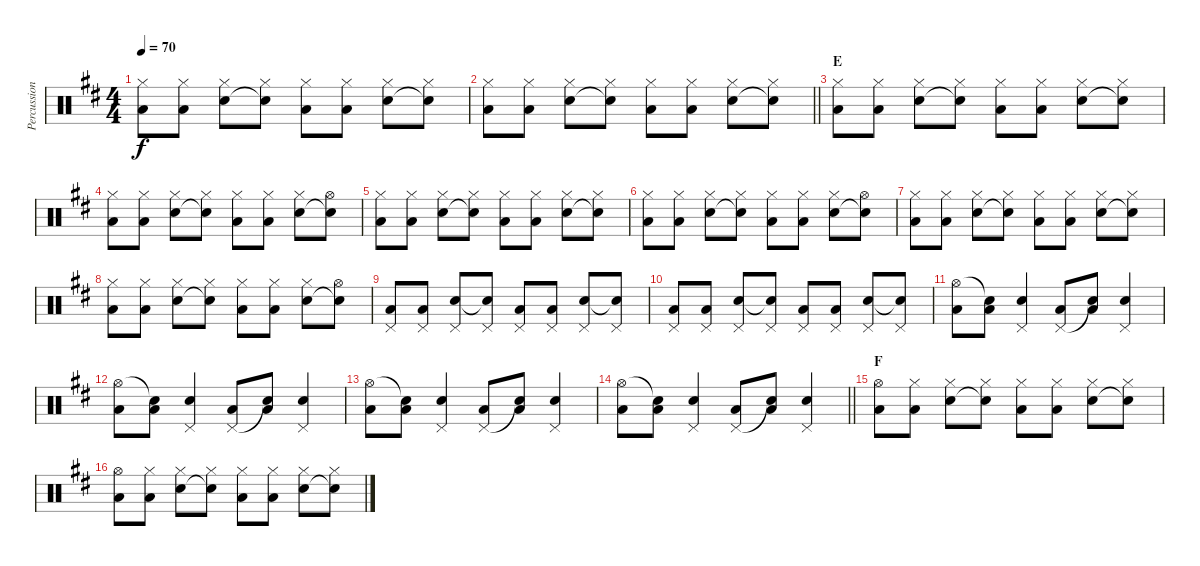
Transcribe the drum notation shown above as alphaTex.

\track ("Percussions" "Percussion") {instrument percussion}
\staff {score}
\articulation defaults
\ts (4 4)
\tempo 70
\clef neutral
\ks d
("Hi-Hat (closed)" "Low Floor Tom (hit)").8{dy f} ("Hi-Hat (closed)" "Low Floor Tom (hit)").8 ("Hi-Hat (closed)" "Electric Snare (hit)").8 ("Hi-Hat (closed)" "Snare (hit)"{t}).8 ("Hi-Hat (closed)" "Low Floor Tom (hit)").8 ("Hi-Hat (closed)" "Low Floor Tom (hit)").8 ("Hi-Hat (closed)" "Electric Snare (hit)").8 ("Hi-Hat (closed)" "Snare (hit)"{t}).8 |
\barLineRight lightlight
("Hi-Hat (closed)" "Low Floor Tom (hit)").8 ("Hi-Hat (closed)" "Low Floor Tom (hit)").8 ("Hi-Hat (closed)" "Electric Snare (hit)").8 ("Hi-Hat (closed)" "Snare (hit)"{t}).8 ("Hi-Hat (closed)" "Low Floor Tom (hit)").8 ("Hi-Hat (closed)" "Low Floor Tom (hit)").8 ("Hi-Hat (closed)" "Electric Snare (hit)").8 ("Hi-Hat (closed)" "Snare (hit)"{t}).8 |
\section ("" "E")
("Hi-Hat (closed)" "Low Floor Tom (hit)").8 ("Hi-Hat (closed)" "Low Floor Tom (hit)").8 ("Hi-Hat (closed)" "Electric Snare (hit)").8 ("Hi-Hat (closed)" "Snare (hit)"{t}).8 ("Hi-Hat (closed)" "Low Floor Tom (hit)").8 ("Hi-Hat (closed)" "Low Floor Tom (hit)").8 ("Hi-Hat (closed)" "Electric Snare (hit)").8 ("Hi-Hat (closed)" "Snare (hit)"{t}).8 |
("Hi-Hat (closed)" "Low Floor Tom (hit)").8 ("Hi-Hat (closed)" "Low Floor Tom (hit)").8 ("Hi-Hat (closed)" "Electric Snare (hit)").8 ("Hi-Hat (closed)" "Snare (hit)"{t}).8 ("Hi-Hat (closed)" "Low Floor Tom (hit)").8 ("Hi-Hat (closed)" "Low Floor Tom (hit)").8 ("Hi-Hat (closed)" "Electric Snare (hit)").8 ("Hi-Hat (open)" "Snare (hit)"{t}).8 |
("Hi-Hat (closed)" "Low Floor Tom (hit)").8 ("Hi-Hat (closed)" "Low Floor Tom (hit)").8 ("Hi-Hat (closed)" "Electric Snare (hit)").8 ("Hi-Hat (closed)" "Snare (hit)"{t}).8 ("Hi-Hat (closed)" "Low Floor Tom (hit)").8 ("Hi-Hat (closed)" "Low Floor Tom (hit)").8 ("Hi-Hat (closed)" "Electric Snare (hit)").8 ("Hi-Hat (closed)" "Snare (hit)"{t}).8 |
("Hi-Hat (closed)" "Low Floor Tom (hit)").8 ("Hi-Hat (closed)" "Low Floor Tom (hit)").8 ("Hi-Hat (closed)" "Electric Snare (hit)").8 ("Hi-Hat (closed)" "Snare (hit)"{t}).8 ("Hi-Hat (closed)" "Low Floor Tom (hit)").8 ("Hi-Hat (closed)" "Low Floor Tom (hit)").8 ("Hi-Hat (closed)" "Electric Snare (hit)").8 ("Hi-Hat (open)" "Snare (hit)"{t}).8 |
("Hi-Hat (closed)" "Low Floor Tom (hit)").8 ("Hi-Hat (closed)" "Low Floor Tom (hit)").8 ("Hi-Hat (closed)" "Electric Snare (hit)").8 ("Hi-Hat (closed)" "Snare (hit)"{t}).8 ("Hi-Hat (closed)" "Low Floor Tom (hit)").8 ("Hi-Hat (closed)" "Low Floor Tom (hit)").8 ("Hi-Hat (closed)" "Electric Snare (hit)").8 ("Hi-Hat (closed)" "Snare (hit)"{t}).8 |
("Hi-Hat (closed)" "Low Floor Tom (hit)").8 ("Hi-Hat (closed)" "Low Floor Tom (hit)").8 ("Hi-Hat (closed)" "Electric Snare (hit)").8 ("Hi-Hat (closed)" "Snare (hit)"{t}).8 ("Hi-Hat (closed)" "Low Floor Tom (hit)").8 ("Hi-Hat (closed)" "Low Floor Tom (hit)").8 ("Hi-Hat (closed)" "Electric Snare (hit)").8 ("Hi-Hat (open)" "Snare (hit)"{t}).8 |
("Pedal Hi-Hat (hit)" "Low Floor Tom (hit)").8 ("Pedal Hi-Hat (hit)" "Low Floor Tom (hit)").8 ("Pedal Hi-Hat (hit)" "Electric Snare (hit)").8 ("Pedal Hi-Hat (hit)" "Snare (hit)"{t}).8 ("Pedal Hi-Hat (hit)" "Low Floor Tom (hit)").8 ("Pedal Hi-Hat (hit)" "Low Floor Tom (hit)").8 ("Pedal Hi-Hat (hit)" "Electric Snare (hit)").8 ("Pedal Hi-Hat (hit)" "Snare (hit)"{t}).8 |
("Pedal Hi-Hat (hit)" "Low Floor Tom (hit)").8 ("Pedal Hi-Hat (hit)" "Low Floor Tom (hit)").8 ("Pedal Hi-Hat (hit)" "Electric Snare (hit)").8 ("Pedal Hi-Hat (hit)" "Snare (hit)"{t}).8 ("Pedal Hi-Hat (hit)" "Low Floor Tom (hit)").8 ("Pedal Hi-Hat (hit)" "Low Floor Tom (hit)").8 ("Pedal Hi-Hat (hit)" "Electric Snare (hit)").8 ("Pedal Hi-Hat (hit)" "Snare (hit)"{t}).8 |
("Hi-Hat (open)" "Low Floor Tom (hit)").8 ("Snare (hit)"{t} "Low Floor Tom (hit)").8 ("Pedal Hi-Hat (hit)" "Electric Snare (hit)").4 ("Pedal Hi-Hat (hit)" "Low Floor Tom (hit)").8 ("Snare (hit)"{t} "Low Floor Tom (hit)").8 ("Pedal Hi-Hat (hit)" "Electric Snare (hit)").4 |
("Hi-Hat (open)" "Low Floor Tom (hit)").8 ("Snare (hit)"{t} "Low Floor Tom (hit)").8 ("Pedal Hi-Hat (hit)" "Electric Snare (hit)").4 ("Pedal Hi-Hat (hit)" "Low Floor Tom (hit)").8 ("Snare (hit)"{t} "Low Floor Tom (hit)").8 ("Pedal Hi-Hat (hit)" "Electric Snare (hit)").4 |
("Hi-Hat (open)" "Low Floor Tom (hit)").8 ("Snare (hit)"{t} "Low Floor Tom (hit)").8 ("Pedal Hi-Hat (hit)" "Electric Snare (hit)").4 ("Pedal Hi-Hat (hit)" "Low Floor Tom (hit)").8 ("Snare (hit)"{t} "Low Floor Tom (hit)").8 ("Pedal Hi-Hat (hit)" "Electric Snare (hit)").4 |
\barLineRight lightlight
("Hi-Hat (open)" "Low Floor Tom (hit)").8 ("Snare (hit)"{t} "Low Floor Tom (hit)").8 ("Pedal Hi-Hat (hit)" "Electric Snare (hit)").4 ("Pedal Hi-Hat (hit)" "Low Floor Tom (hit)").8 ("Snare (hit)"{t} "Low Floor Tom (hit)").8 ("Pedal Hi-Hat (hit)" "Electric Snare (hit)").4 |
\section ("" "F")
("Hi-Hat (open)" "Low Floor Tom (hit)").8 ("Hi-Hat (closed)" "Low Floor Tom (hit)").8 ("Hi-Hat (closed)" "Electric Snare (hit)").8 ("Hi-Hat (closed)" "Snare (hit)"{t}).8 ("Hi-Hat (closed)" "Low Floor Tom (hit)").8 ("Hi-Hat (closed)" "Low Floor Tom (hit)").8 ("Hi-Hat (closed)" "Electric Snare (hit)").8 ("Hi-Hat (closed)" "Snare (hit)"{t}).8 |
("Hi-Hat (open)" "Low Floor Tom (hit)").8 ("Hi-Hat (closed)" "Low Floor Tom (hit)").8 ("Hi-Hat (closed)" "Electric Snare (hit)").8 ("Hi-Hat (closed)" "Snare (hit)"{t}).8 ("Hi-Hat (closed)" "Low Floor Tom (hit)").8 ("Hi-Hat (closed)" "Low Floor Tom (hit)").8 ("Hi-Hat (closed)" "Electric Snare (hit)").8 ("Hi-Hat (closed)" "Snare (hit)"{t}).8
